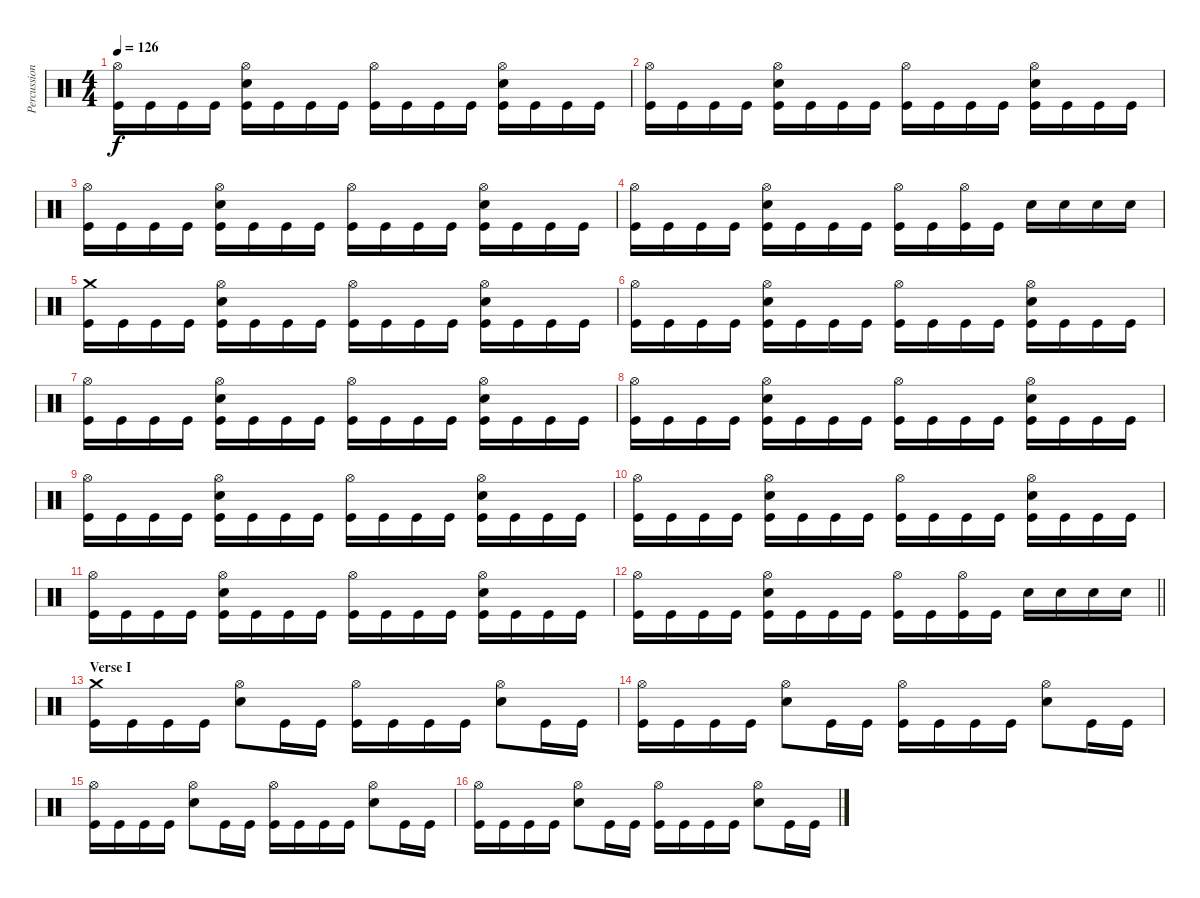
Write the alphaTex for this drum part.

\track ("Percussion" "Percussion") {instrument percussion}
\staff {score}
\articulation defaults
\ts (4 4)
\tempo 126
\clef neutral
\ks c
("Hi-Hat (open)" "Kick (hit)").16{dy f} "Kick (hit)".16 "Kick (hit)".16 "Kick (hit)".16 ("Hi-Hat (open)" "Electric Snare (hit)" "Kick (hit)").16 "Kick (hit)".16 "Kick (hit)".16 "Kick (hit)".16 ("Hi-Hat (open)" "Kick (hit)").16 "Kick (hit)".16 "Kick (hit)".16 "Kick (hit)".16 ("Hi-Hat (open)" "Electric Snare (hit)" "Kick (hit)").16 "Kick (hit)".16 "Kick (hit)".16 "Kick (hit)".16 |
("Hi-Hat (open)" "Kick (hit)").16 "Kick (hit)".16 "Kick (hit)".16 "Kick (hit)".16 ("Hi-Hat (open)" "Electric Snare (hit)" "Kick (hit)").16 "Kick (hit)".16 "Kick (hit)".16 "Kick (hit)".16 ("Hi-Hat (open)" "Kick (hit)").16 "Kick (hit)".16 "Kick (hit)".16 "Kick (hit)".16 ("Hi-Hat (open)" "Electric Snare (hit)" "Kick (hit)").16 "Kick (hit)".16 "Kick (hit)".16 "Kick (hit)".16 |
("Hi-Hat (open)" "Kick (hit)").16 "Kick (hit)".16 "Kick (hit)".16 "Kick (hit)".16 ("Hi-Hat (open)" "Electric Snare (hit)" "Kick (hit)").16 "Kick (hit)".16 "Kick (hit)".16 "Kick (hit)".16 ("Hi-Hat (open)" "Kick (hit)").16 "Kick (hit)".16 "Kick (hit)".16 "Kick (hit)".16 ("Hi-Hat (open)" "Electric Snare (hit)" "Kick (hit)").16 "Kick (hit)".16 "Kick (hit)".16 "Kick (hit)".16 |
("Hi-Hat (open)" "Kick (hit)").16 "Kick (hit)".16 "Kick (hit)".16 "Kick (hit)".16 ("Hi-Hat (open)" "Electric Snare (hit)" "Kick (hit)").16 "Kick (hit)".16 "Kick (hit)".16 "Kick (hit)".16 ("Hi-Hat (open)" "Kick (hit)").16 "Kick (hit)".16 ("Hi-Hat (open)" "Kick (hit)").16 "Kick (hit)".16 "Electric Snare (hit)".16 "Electric Snare (hit)".16 "Electric Snare (hit)".16 "Electric Snare (hit)".16 |
("Crash medium (hit)" "Kick (hit)").16 "Kick (hit)".16 "Kick (hit)".16 "Kick (hit)".16 ("Hi-Hat (open)" "Electric Snare (hit)" "Kick (hit)").16 "Kick (hit)".16 "Kick (hit)".16 "Kick (hit)".16 ("Hi-Hat (open)" "Kick (hit)").16 "Kick (hit)".16 "Kick (hit)".16 "Kick (hit)".16 ("Hi-Hat (open)" "Electric Snare (hit)" "Kick (hit)").16 "Kick (hit)".16 "Kick (hit)".16 "Kick (hit)".16 |
("Hi-Hat (open)" "Kick (hit)").16 "Kick (hit)".16 "Kick (hit)".16 "Kick (hit)".16 ("Hi-Hat (open)" "Electric Snare (hit)" "Kick (hit)").16 "Kick (hit)".16 "Kick (hit)".16 "Kick (hit)".16 ("Hi-Hat (open)" "Kick (hit)").16 "Kick (hit)".16 "Kick (hit)".16 "Kick (hit)".16 ("Hi-Hat (open)" "Electric Snare (hit)" "Kick (hit)").16 "Kick (hit)".16 "Kick (hit)".16 "Kick (hit)".16 |
("Hi-Hat (open)" "Kick (hit)").16 "Kick (hit)".16 "Kick (hit)".16 "Kick (hit)".16 ("Hi-Hat (open)" "Electric Snare (hit)" "Kick (hit)").16 "Kick (hit)".16 "Kick (hit)".16 "Kick (hit)".16 ("Hi-Hat (open)" "Kick (hit)").16 "Kick (hit)".16 "Kick (hit)".16 "Kick (hit)".16 ("Hi-Hat (open)" "Electric Snare (hit)" "Kick (hit)").16 "Kick (hit)".16 "Kick (hit)".16 "Kick (hit)".16 |
("Hi-Hat (open)" "Kick (hit)").16 "Kick (hit)".16 "Kick (hit)".16 "Kick (hit)".16 ("Hi-Hat (open)" "Electric Snare (hit)" "Kick (hit)").16 "Kick (hit)".16 "Kick (hit)".16 "Kick (hit)".16 ("Hi-Hat (open)" "Kick (hit)").16 "Kick (hit)".16 "Kick (hit)".16 "Kick (hit)".16 ("Hi-Hat (open)" "Electric Snare (hit)" "Kick (hit)").16 "Kick (hit)".16 "Kick (hit)".16 "Kick (hit)".16 |
("Hi-Hat (open)" "Kick (hit)").16 "Kick (hit)".16 "Kick (hit)".16 "Kick (hit)".16 ("Hi-Hat (open)" "Electric Snare (hit)" "Kick (hit)").16 "Kick (hit)".16 "Kick (hit)".16 "Kick (hit)".16 ("Hi-Hat (open)" "Kick (hit)").16 "Kick (hit)".16 "Kick (hit)".16 "Kick (hit)".16 ("Hi-Hat (open)" "Electric Snare (hit)" "Kick (hit)").16 "Kick (hit)".16 "Kick (hit)".16 "Kick (hit)".16 |
("Hi-Hat (open)" "Kick (hit)").16 "Kick (hit)".16 "Kick (hit)".16 "Kick (hit)".16 ("Hi-Hat (open)" "Electric Snare (hit)" "Kick (hit)").16 "Kick (hit)".16 "Kick (hit)".16 "Kick (hit)".16 ("Hi-Hat (open)" "Kick (hit)").16 "Kick (hit)".16 "Kick (hit)".16 "Kick (hit)".16 ("Hi-Hat (open)" "Electric Snare (hit)" "Kick (hit)").16 "Kick (hit)".16 "Kick (hit)".16 "Kick (hit)".16 |
("Hi-Hat (open)" "Kick (hit)").16 "Kick (hit)".16 "Kick (hit)".16 "Kick (hit)".16 ("Hi-Hat (open)" "Electric Snare (hit)" "Kick (hit)").16 "Kick (hit)".16 "Kick (hit)".16 "Kick (hit)".16 ("Hi-Hat (open)" "Kick (hit)").16 "Kick (hit)".16 "Kick (hit)".16 "Kick (hit)".16 ("Hi-Hat (open)" "Electric Snare (hit)" "Kick (hit)").16 "Kick (hit)".16 "Kick (hit)".16 "Kick (hit)".16 |
\barLineRight lightlight
("Hi-Hat (open)" "Kick (hit)").16 "Kick (hit)".16 "Kick (hit)".16 "Kick (hit)".16 ("Hi-Hat (open)" "Electric Snare (hit)" "Kick (hit)").16 "Kick (hit)".16 "Kick (hit)".16 "Kick (hit)".16 ("Hi-Hat (open)" "Kick (hit)").16 "Kick (hit)".16 ("Hi-Hat (open)" "Kick (hit)").16 "Kick (hit)".16 "Electric Snare (hit)".16 "Electric Snare (hit)".16 "Electric Snare (hit)".16 "Electric Snare (hit)".16 |
\section ("" "Verse I")
("Crash medium (hit)" "Kick (hit)").16 "Kick (hit)".16 "Kick (hit)".16 "Kick (hit)".16 ("Hi-Hat (open)" "Electric Snare (hit)").8 "Kick (hit)".16 "Kick (hit)".16 ("Hi-Hat (open)" "Kick (hit)").16 "Kick (hit)".16 "Kick (hit)".16 "Kick (hit)".16 ("Hi-Hat (open)" "Electric Snare (hit)").8 "Kick (hit)".16 "Kick (hit)".16 |
("Hi-Hat (open)" "Kick (hit)").16 "Kick (hit)".16 "Kick (hit)".16 "Kick (hit)".16 ("Hi-Hat (open)" "Electric Snare (hit)").8 "Kick (hit)".16 "Kick (hit)".16 ("Hi-Hat (open)" "Kick (hit)").16 "Kick (hit)".16 "Kick (hit)".16 "Kick (hit)".16 ("Hi-Hat (open)" "Electric Snare (hit)").8 "Kick (hit)".16 "Kick (hit)".16 |
("Hi-Hat (open)" "Kick (hit)").16 "Kick (hit)".16 "Kick (hit)".16 "Kick (hit)".16 ("Hi-Hat (open)" "Electric Snare (hit)").8 "Kick (hit)".16 "Kick (hit)".16 ("Hi-Hat (open)" "Kick (hit)").16 "Kick (hit)".16 "Kick (hit)".16 "Kick (hit)".16 ("Hi-Hat (open)" "Electric Snare (hit)").8 "Kick (hit)".16 "Kick (hit)".16 |
("Hi-Hat (open)" "Kick (hit)").16 "Kick (hit)".16 "Kick (hit)".16 "Kick (hit)".16 ("Hi-Hat (open)" "Electric Snare (hit)").8 "Kick (hit)".16 "Kick (hit)".16 ("Hi-Hat (open)" "Kick (hit)").16 "Kick (hit)".16 "Kick (hit)".16 "Kick (hit)".16 ("Hi-Hat (open)" "Electric Snare (hit)").8 "Kick (hit)".16 "Kick (hit)".16
